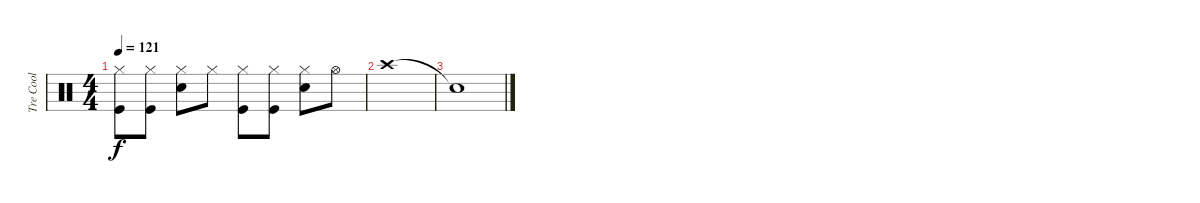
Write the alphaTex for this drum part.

\track ("Tre Cool" "Tre Cool") {instrument percussion}
\staff {score}
\articulation defaults
\ts (4 4)
\tempo 121
\clef neutral
\ks c
("Hi-Hat (closed)" "Kick (hit)").8{dy f} ("Hi-Hat (closed)" "Kick (hit)").8 ("Hi-Hat (closed)" "Snare (hit) 2").8 "Hi-Hat (closed)".8 ("Hi-Hat (closed)" "Kick (hit)").8 ("Hi-Hat (closed)" "Kick (hit)").8 ("Hi-Hat (closed)" "Snare (hit) 2").8 "Hi-Hat (open)".8 |
"Crash high (hit)".1 |
"Snare (hit)"{t}.1
